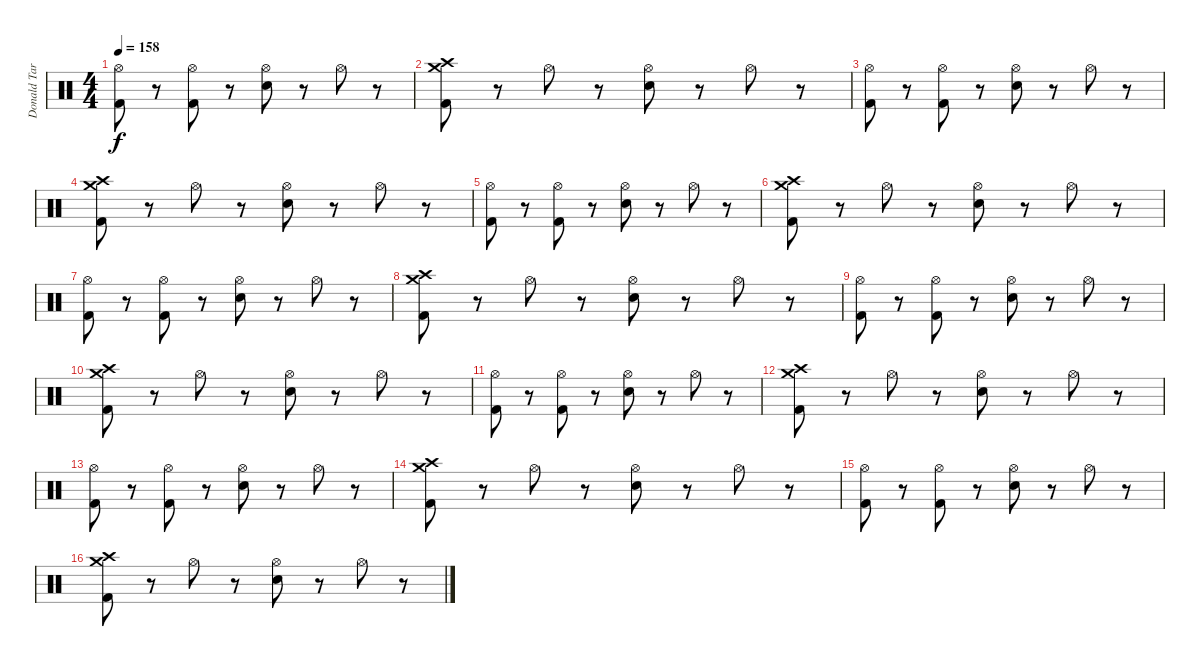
\track ("Donald Tardy (Drums)" "Donald Tar") {instrument percussion}
\staff {score}
\articulation defaults
\ts (4 4)
\tempo 158
\clef neutral
\ks c
("Kick (hit) 2" "Hi-Hat (open)").8{dy f} r.8 ("Kick (hit) 2" "Hi-Hat (open)").8 r.8 ("Electric Snare (hit)" "Hi-Hat (open)").8 r.8 "Hi-Hat (open)".8 r.8 |
("Kick (hit) 2" "Crash medium (hit)" "Crash high (hit)").8 r.8 "Hi-Hat (open)".8 r.8 ("Electric Snare (hit)" "Hi-Hat (open)").8 r.8 "Hi-Hat (open)".8 r.8 |
("Kick (hit) 2" "Hi-Hat (open)").8 r.8 ("Kick (hit) 2" "Hi-Hat (open)").8 r.8 ("Electric Snare (hit)" "Hi-Hat (open)").8 r.8 "Hi-Hat (open)".8 r.8 |
("Kick (hit) 2" "Crash medium (hit)" "Crash high (hit)").8 r.8 "Hi-Hat (open)".8 r.8 ("Electric Snare (hit)" "Hi-Hat (open)").8 r.8 "Hi-Hat (open)".8 r.8 |
("Kick (hit) 2" "Hi-Hat (open)").8 r.8 ("Kick (hit) 2" "Hi-Hat (open)").8 r.8 ("Electric Snare (hit)" "Hi-Hat (open)").8 r.8 "Hi-Hat (open)".8 r.8 |
("Kick (hit) 2" "Crash medium (hit)" "Crash high (hit)").8 r.8 "Hi-Hat (open)".8 r.8 ("Electric Snare (hit)" "Hi-Hat (open)").8 r.8 "Hi-Hat (open)".8 r.8 |
("Kick (hit) 2" "Hi-Hat (open)").8 r.8 ("Kick (hit) 2" "Hi-Hat (open)").8 r.8 ("Electric Snare (hit)" "Hi-Hat (open)").8 r.8 "Hi-Hat (open)".8 r.8 |
("Kick (hit) 2" "Crash medium (hit)" "Crash high (hit)").8 r.8 "Hi-Hat (open)".8 r.8 ("Electric Snare (hit)" "Hi-Hat (open)").8 r.8 "Hi-Hat (open)".8 r.8 |
("Kick (hit) 2" "Hi-Hat (open)").8 r.8 ("Kick (hit) 2" "Hi-Hat (open)").8 r.8 ("Electric Snare (hit)" "Hi-Hat (open)").8 r.8 "Hi-Hat (open)".8 r.8 |
("Kick (hit) 2" "Crash medium (hit)" "Crash high (hit)").8 r.8 "Hi-Hat (open)".8 r.8 ("Electric Snare (hit)" "Hi-Hat (open)").8 r.8 "Hi-Hat (open)".8 r.8 |
("Kick (hit) 2" "Hi-Hat (open)").8 r.8 ("Kick (hit) 2" "Hi-Hat (open)").8 r.8 ("Electric Snare (hit)" "Hi-Hat (open)").8 r.8 "Hi-Hat (open)".8 r.8 |
("Kick (hit) 2" "Crash medium (hit)" "Crash high (hit)").8 r.8 "Hi-Hat (open)".8 r.8 ("Electric Snare (hit)" "Hi-Hat (open)").8 r.8 "Hi-Hat (open)".8 r.8 |
("Kick (hit) 2" "Hi-Hat (open)").8 r.8 ("Kick (hit) 2" "Hi-Hat (open)").8 r.8 ("Electric Snare (hit)" "Hi-Hat (open)").8 r.8 "Hi-Hat (open)".8 r.8 |
("Kick (hit) 2" "Crash medium (hit)" "Crash high (hit)").8 r.8 "Hi-Hat (open)".8 r.8 ("Electric Snare (hit)" "Hi-Hat (open)").8 r.8 "Hi-Hat (open)".8 r.8 |
("Kick (hit) 2" "Hi-Hat (open)").8 r.8 ("Kick (hit) 2" "Hi-Hat (open)").8 r.8 ("Electric Snare (hit)" "Hi-Hat (open)").8 r.8 "Hi-Hat (open)".8 r.8 |
("Kick (hit) 2" "Crash medium (hit)" "Crash high (hit)").8 r.8 "Hi-Hat (open)".8 r.8 ("Electric Snare (hit)" "Hi-Hat (open)").8 r.8 "Hi-Hat (open)".8 r.8
